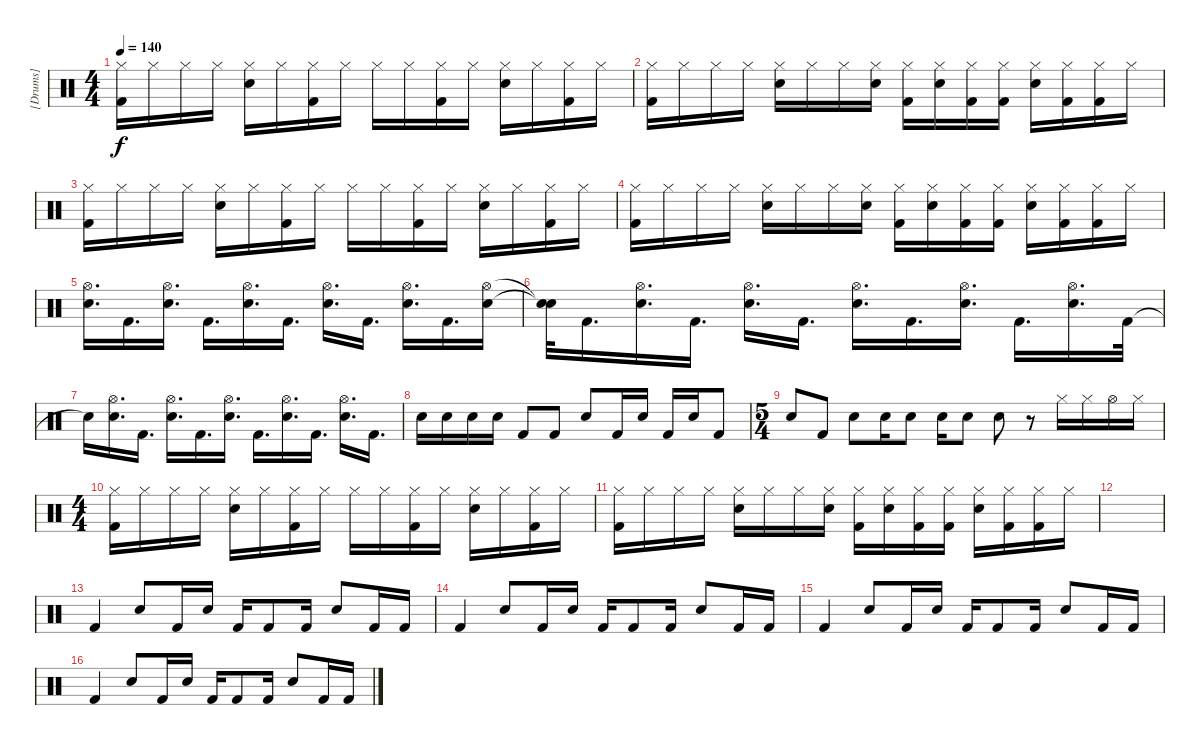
\track ("[Drums]" "[Drums]") {instrument percussion}
\staff {score}
\articulation defaults
\ts (4 4)
\tempo 140
\clef neutral
\ks c
("Hi-Hat (closed)" "Kick (hit) 2").16{dy f} "Hi-Hat (closed)".16 "Hi-Hat (closed)".16 "Hi-Hat (closed)".16 ("Hi-Hat (closed)" "Electric Snare (hit)").16 "Hi-Hat (closed)".16 ("Hi-Hat (closed)" "Kick (hit) 2").16 "Hi-Hat (closed)".16 "Hi-Hat (closed)".16 "Hi-Hat (closed)".16 ("Hi-Hat (closed)" "Kick (hit) 2").16 "Hi-Hat (closed)".16 ("Hi-Hat (closed)" "Electric Snare (hit)").16 "Hi-Hat (closed)".16 ("Hi-Hat (closed)" "Kick (hit) 2").16 "Hi-Hat (closed)".16 |
("Hi-Hat (closed)" "Kick (hit) 2").16 "Hi-Hat (closed)".16 "Hi-Hat (closed)".16 "Hi-Hat (closed)".16 ("Hi-Hat (closed)" "Electric Snare (hit)").16 "Hi-Hat (closed)".16 "Hi-Hat (closed)".16 ("Hi-Hat (closed)" "Electric Snare (hit)").16 ("Hi-Hat (closed)" "Kick (hit) 2").16 ("Hi-Hat (closed)" "Electric Snare (hit)").16 ("Hi-Hat (closed)" "Kick (hit) 2").16 ("Hi-Hat (closed)" "Kick (hit) 2").16 ("Hi-Hat (closed)" "Electric Snare (hit)").16 ("Hi-Hat (closed)" "Kick (hit) 2").16 ("Hi-Hat (closed)" "Kick (hit) 2").16 "Hi-Hat (closed)".16 |
("Hi-Hat (closed)" "Kick (hit) 2").16 "Hi-Hat (closed)".16 "Hi-Hat (closed)".16 "Hi-Hat (closed)".16 ("Hi-Hat (closed)" "Electric Snare (hit)").16 "Hi-Hat (closed)".16 ("Hi-Hat (closed)" "Kick (hit) 2").16 "Hi-Hat (closed)".16 "Hi-Hat (closed)".16 "Hi-Hat (closed)".16 ("Hi-Hat (closed)" "Kick (hit) 2").16 "Hi-Hat (closed)".16 ("Hi-Hat (closed)" "Electric Snare (hit)").16 "Hi-Hat (closed)".16 ("Hi-Hat (closed)" "Kick (hit) 2").16 "Hi-Hat (closed)".16 |
("Hi-Hat (closed)" "Kick (hit) 2").16 "Hi-Hat (closed)".16 "Hi-Hat (closed)".16 "Hi-Hat (closed)".16 ("Hi-Hat (closed)" "Electric Snare (hit)").16 "Hi-Hat (closed)".16 "Hi-Hat (closed)".16 ("Hi-Hat (closed)" "Electric Snare (hit)").16 ("Hi-Hat (closed)" "Kick (hit) 2").16 ("Hi-Hat (closed)" "Electric Snare (hit)").16 ("Hi-Hat (closed)" "Kick (hit) 2").16 ("Hi-Hat (closed)" "Kick (hit) 2").16 ("Hi-Hat (closed)" "Electric Snare (hit)").16 ("Hi-Hat (closed)" "Kick (hit) 2").16 ("Hi-Hat (closed)" "Kick (hit) 2").16 "Hi-Hat (closed)".16 |
("Hi-Hat (open)" "Electric Snare (hit)").16{d} "Kick (hit) 2".16{d} ("Hi-Hat (open)" "Electric Snare (hit)").16{d} "Kick (hit) 2".16{d} ("Hi-Hat (open)" "Electric Snare (hit)").16{d} "Kick (hit) 2".16{d} ("Hi-Hat (open)" "Electric Snare (hit)").16{d} "Kick (hit) 2".16{d} ("Hi-Hat (open)" "Electric Snare (hit)").16{d} "Kick (hit) 2".16{d} ("Hi-Hat (open)" "Electric Snare (hit)").16 |
("Snare (hit)"{t} "Snare (hit)"{t}).32 "Kick (hit) 2".16{d} ("Hi-Hat (open)" "Electric Snare (hit)").16{d} "Kick (hit) 2".16{d} ("Hi-Hat (open)" "Electric Snare (hit)").16{d} "Kick (hit) 2".16{d} ("Hi-Hat (open)" "Electric Snare (hit)").16{d} "Kick (hit) 2".16{d} ("Hi-Hat (open)" "Electric Snare (hit)").16{d} "Kick (hit) 2".16{d} ("Hi-Hat (open)" "Electric Snare (hit)").16{d} "Kick (hit) 2".32 |
"Snare (hit)"{t}.16 ("Hi-Hat (open)" "Electric Snare (hit)").16{d} "Kick (hit) 2".16{d} ("Hi-Hat (open)" "Electric Snare (hit)").16{d} "Kick (hit) 2".16{d} ("Hi-Hat (open)" "Electric Snare (hit)").16{d} "Kick (hit) 2".16{d} ("Hi-Hat (open)" "Electric Snare (hit)").16{d} "Kick (hit) 2".16{d} ("Hi-Hat (open)" "Electric Snare (hit)").16{d} "Kick (hit) 2".16{d} |
"Electric Snare (hit)".16 "Electric Snare (hit)".16 "Electric Snare (hit)".16 "Electric Snare (hit)".16 "Kick (hit) 2".8 "Kick (hit) 2".8 "Electric Snare (hit)".8 "Kick (hit) 2".16 "Electric Snare (hit)".16 "Kick (hit) 2".16 "Electric Snare (hit)".16 "Kick (hit) 2".8 |
\ts (5 4)
"Electric Snare (hit)".8 "Kick (hit) 2".8 "Electric Snare (hit)".8 "Electric Snare (hit)".16 "Electric Snare (hit)".8 "Electric Snare (hit)".16 "Electric Snare (hit)".8 "Electric Snare (hit)".8 r.8 "Hi-Hat (closed)".16 "Hi-Hat (closed)".16 "Hi-Hat (open)".16 "Hi-Hat (closed)".16 |
\ts (4 4)
("Hi-Hat (closed)" "Kick (hit) 2").16 "Hi-Hat (closed)".16 "Hi-Hat (closed)".16 "Hi-Hat (closed)".16 ("Hi-Hat (closed)" "Electric Snare (hit)").16 "Hi-Hat (closed)".16 ("Hi-Hat (closed)" "Kick (hit) 2").16 "Hi-Hat (closed)".16 "Hi-Hat (closed)".16 "Hi-Hat (closed)".16 ("Hi-Hat (closed)" "Kick (hit) 2").16 "Hi-Hat (closed)".16 ("Hi-Hat (closed)" "Electric Snare (hit)").16 "Hi-Hat (closed)".16 ("Hi-Hat (closed)" "Kick (hit) 2").16 "Hi-Hat (closed)".16 |
("Hi-Hat (closed)" "Kick (hit) 2").16 "Hi-Hat (closed)".16 "Hi-Hat (closed)".16 "Hi-Hat (closed)".16 ("Hi-Hat (closed)" "Electric Snare (hit)").16 "Hi-Hat (closed)".16 "Hi-Hat (closed)".16 ("Hi-Hat (closed)" "Electric Snare (hit)").16 ("Hi-Hat (closed)" "Kick (hit) 2").16 ("Hi-Hat (closed)" "Electric Snare (hit)").16 ("Hi-Hat (closed)" "Kick (hit) 2").16 ("Hi-Hat (closed)" "Kick (hit) 2").16 ("Hi-Hat (closed)" "Electric Snare (hit)").16 ("Hi-Hat (closed)" "Kick (hit) 2").16 ("Hi-Hat (closed)" "Kick (hit) 2").16 "Hi-Hat (closed)".16 |
|
"Kick (hit) 2".4 "Electric Snare (hit)".8 "Kick (hit) 2".16 "Electric Snare (hit)".16 "Kick (hit) 2".16 "Kick (hit) 2".8 "Kick (hit) 2".16 "Electric Snare (hit)".8 "Kick (hit) 2".16 "Kick (hit) 2".16 |
"Kick (hit) 2".4 "Electric Snare (hit)".8 "Kick (hit) 2".16 "Electric Snare (hit)".16 "Kick (hit) 2".16 "Kick (hit) 2".8 "Kick (hit) 2".16 "Electric Snare (hit)".8 "Kick (hit) 2".16 "Kick (hit) 2".16 |
"Kick (hit) 2".4 "Electric Snare (hit)".8 "Kick (hit) 2".16 "Electric Snare (hit)".16 "Kick (hit) 2".16 "Kick (hit) 2".8 "Kick (hit) 2".16 "Electric Snare (hit)".8 "Kick (hit) 2".16 "Kick (hit) 2".16 |
"Kick (hit) 2".4 "Electric Snare (hit)".8 "Kick (hit) 2".16 "Electric Snare (hit)".16 "Kick (hit) 2".16 "Kick (hit) 2".8 "Kick (hit) 2".16 "Electric Snare (hit)".8 "Kick (hit) 2".16 "Kick (hit) 2".16
